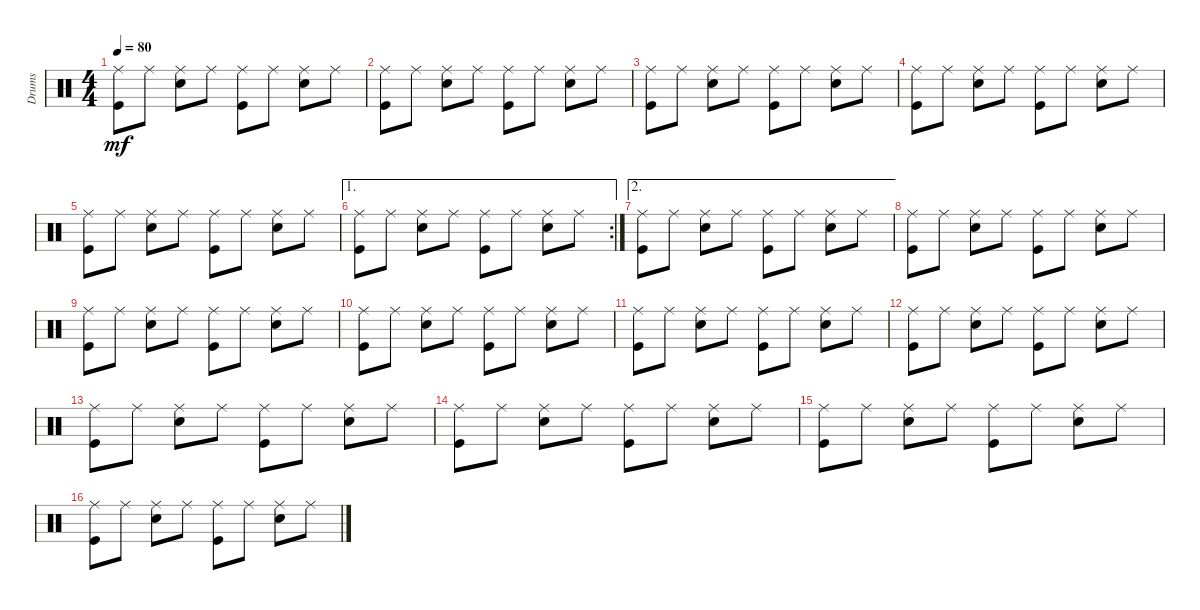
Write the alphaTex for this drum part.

\track ("Drums" "Drums") {instrument percussion}
\staff {score}
\articulation defaults
\ts (4 4)
\tempo 80
\clef neutral
\ks c
("Ride (middle)" "Kick (hit)").8{dy mf} "Ride (middle)".8 ("Ride (middle)" "Snare (hit) 2").8 "Ride (middle)".8 ("Ride (middle)" "Kick (hit)").8 "Ride (middle)".8 ("Ride (middle)" "Snare (hit) 2").8 "Ride (middle)".8 |
("Ride (middle)" "Kick (hit)").8 "Ride (middle)".8 ("Ride (middle)" "Snare (hit) 2").8 "Ride (middle)".8 ("Ride (middle)" "Kick (hit)").8 "Ride (middle)".8 ("Ride (middle)" "Snare (hit) 2").8 "Ride (middle)".8 |
("Ride (middle)" "Kick (hit)").8 "Ride (middle)".8 ("Ride (middle)" "Snare (hit) 2").8 "Ride (middle)".8 ("Ride (middle)" "Kick (hit)").8 "Ride (middle)".8 ("Ride (middle)" "Snare (hit) 2").8 "Ride (middle)".8 |
("Ride (middle)" "Kick (hit)").8 "Ride (middle)".8 ("Ride (middle)" "Snare (hit) 2").8 "Ride (middle)".8 ("Ride (middle)" "Kick (hit)").8 "Ride (middle)".8 ("Ride (middle)" "Snare (hit) 2").8 "Ride (middle)".8 |
("Ride (middle)" "Kick (hit)").8 "Ride (middle)".8 ("Ride (middle)" "Snare (hit) 2").8 "Ride (middle)".8 ("Ride (middle)" "Kick (hit)").8 "Ride (middle)".8 ("Ride (middle)" "Snare (hit) 2").8 "Ride (middle)".8 |
\ae 1
\rc 2
("Ride (middle)" "Kick (hit)").8 "Ride (middle)".8 ("Ride (middle)" "Snare (hit) 2").8 "Ride (middle)".8 ("Ride (middle)" "Kick (hit)").8 "Ride (middle)".8 ("Ride (middle)" "Snare (hit) 2").8 "Ride (middle)".8 |
\ae 2
("Ride (middle)" "Kick (hit)").8 "Ride (middle)".8 ("Ride (middle)" "Snare (hit) 2").8 "Ride (middle)".8 ("Ride (middle)" "Kick (hit)").8 "Ride (middle)".8 ("Ride (middle)" "Snare (hit) 2").8 "Ride (middle)".8 |
("Ride (middle)" "Kick (hit)").8 "Ride (middle)".8 ("Ride (middle)" "Snare (hit) 2").8 "Ride (middle)".8 ("Ride (middle)" "Kick (hit)").8 "Ride (middle)".8 ("Ride (middle)" "Snare (hit) 2").8 "Ride (middle)".8 |
("Ride (middle)" "Kick (hit)").8 "Ride (middle)".8 ("Ride (middle)" "Snare (hit) 2").8 "Ride (middle)".8 ("Ride (middle)" "Kick (hit)").8 "Ride (middle)".8 ("Ride (middle)" "Snare (hit) 2").8 "Ride (middle)".8 |
("Ride (middle)" "Kick (hit)").8 "Ride (middle)".8 ("Ride (middle)" "Snare (hit) 2").8 "Ride (middle)".8 ("Ride (middle)" "Kick (hit)").8 "Ride (middle)".8 ("Ride (middle)" "Snare (hit) 2").8 "Ride (middle)".8 |
("Ride (middle)" "Kick (hit)").8 "Ride (middle)".8 ("Ride (middle)" "Snare (hit) 2").8 "Ride (middle)".8 ("Ride (middle)" "Kick (hit)").8 "Ride (middle)".8 ("Ride (middle)" "Snare (hit) 2").8 "Ride (middle)".8 |
("Ride (middle)" "Kick (hit)").8 "Ride (middle)".8 ("Ride (middle)" "Snare (hit) 2").8 "Ride (middle)".8 ("Ride (middle)" "Kick (hit)").8 "Ride (middle)".8 ("Ride (middle)" "Snare (hit) 2").8 "Ride (middle)".8 |
("Ride (middle)" "Kick (hit)").8 "Ride (middle)".8 ("Ride (middle)" "Snare (hit) 2").8 "Ride (middle)".8 ("Ride (middle)" "Kick (hit)").8 "Ride (middle)".8 ("Ride (middle)" "Snare (hit) 2").8 "Ride (middle)".8 |
("Ride (middle)" "Kick (hit)").8 "Ride (middle)".8 ("Ride (middle)" "Snare (hit) 2").8 "Ride (middle)".8 ("Ride (middle)" "Kick (hit)").8 "Ride (middle)".8 ("Ride (middle)" "Snare (hit) 2").8 "Ride (middle)".8 |
("Ride (middle)" "Kick (hit)").8 "Ride (middle)".8 ("Ride (middle)" "Snare (hit) 2").8 "Ride (middle)".8 ("Ride (middle)" "Kick (hit)").8 "Ride (middle)".8 ("Ride (middle)" "Snare (hit) 2").8 "Ride (middle)".8 |
("Ride (middle)" "Kick (hit)").8 "Ride (middle)".8 ("Ride (middle)" "Snare (hit) 2").8 "Ride (middle)".8 ("Ride (middle)" "Kick (hit)").8 "Ride (middle)".8 ("Ride (middle)" "Snare (hit) 2").8 "Ride (middle)".8
